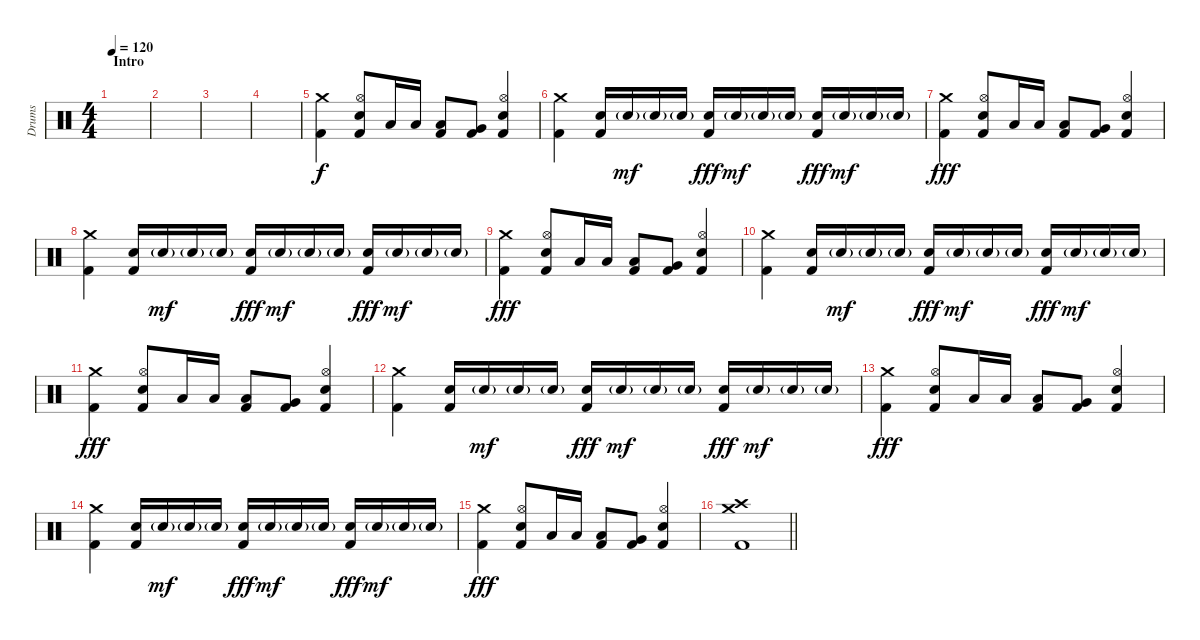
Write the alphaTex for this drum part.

\track ("Drums" "Drums") {instrument percussion}
\staff {score}
\articulation defaults
\ts (4 4)
\section ("" "Intro")
\tempo 120
\clef neutral
\ks c
|
|
|
|
("Crash medium (hit)" "Kick (hit) 2").4 ("Hi-Hat (open)" "Snare (hit) 2" "Kick (hit) 2").8 "Low Tom (hit)".16 "Low Tom (hit)".16 ("Low Tom (hit)" "Kick (hit) 2").8 ("Very Low Tom (hit)" "Kick (hit) 2").8 ("Hi-Hat (open)" "Snare (hit) 2" "Kick (hit) 2").4 |
("Crash medium (hit)" "Kick (hit) 2").4 ("Snare (hit) 2" "Kick (hit) 2").16 "Snare (hit) 2"{g}.16{dy mf} "Snare (hit) 2"{g}.16 "Snare (hit) 2"{g}.16 ("Snare (hit) 2" "Kick (hit) 2").16{dy fff} "Snare (hit) 2"{g}.16{dy mf} "Snare (hit) 2"{g}.16 "Snare (hit) 2"{g}.16 ("Snare (hit) 2" "Kick (hit) 2").16{dy fff} "Snare (hit) 2"{g}.16{dy mf} "Snare (hit) 2"{g}.16 "Snare (hit) 2"{g}.16 |
("Crash medium (hit)" "Kick (hit) 2").4{dy fff} ("Hi-Hat (open)" "Snare (hit) 2" "Kick (hit) 2").8 "Low Tom (hit)".16 "Low Tom (hit)".16 ("Low Tom (hit)" "Kick (hit) 2").8 ("Very Low Tom (hit)" "Kick (hit) 2").8 ("Hi-Hat (open)" "Snare (hit) 2" "Kick (hit) 2").4 |
("Crash medium (hit)" "Kick (hit) 2").4 ("Snare (hit) 2" "Kick (hit) 2").16 "Snare (hit) 2"{g}.16{dy mf} "Snare (hit) 2"{g}.16 "Snare (hit) 2"{g}.16 ("Snare (hit) 2" "Kick (hit) 2").16{dy fff} "Snare (hit) 2"{g}.16{dy mf} "Snare (hit) 2"{g}.16 "Snare (hit) 2"{g}.16 ("Snare (hit) 2" "Kick (hit) 2").16{dy fff} "Snare (hit) 2"{g}.16{dy mf} "Snare (hit) 2"{g}.16 "Snare (hit) 2"{g}.16 |
("Crash medium (hit)" "Kick (hit) 2").4{dy fff} ("Hi-Hat (open)" "Snare (hit) 2" "Kick (hit) 2").8 "Low Tom (hit)".16 "Low Tom (hit)".16 ("Low Tom (hit)" "Kick (hit) 2").8 ("Very Low Tom (hit)" "Kick (hit) 2").8 ("Hi-Hat (open)" "Snare (hit) 2" "Kick (hit) 2").4 |
("Crash medium (hit)" "Kick (hit) 2").4 ("Snare (hit) 2" "Kick (hit) 2").16 "Snare (hit) 2"{g}.16{dy mf} "Snare (hit) 2"{g}.16 "Snare (hit) 2"{g}.16 ("Snare (hit) 2" "Kick (hit) 2").16{dy fff} "Snare (hit) 2"{g}.16{dy mf} "Snare (hit) 2"{g}.16 "Snare (hit) 2"{g}.16 ("Snare (hit) 2" "Kick (hit) 2").16{dy fff} "Snare (hit) 2"{g}.16{dy mf} "Snare (hit) 2"{g}.16 "Snare (hit) 2"{g}.16 |
("Crash medium (hit)" "Kick (hit) 2").4{dy fff} ("Hi-Hat (open)" "Snare (hit) 2" "Kick (hit) 2").8 "Low Tom (hit)".16 "Low Tom (hit)".16 ("Low Tom (hit)" "Kick (hit) 2").8 ("Very Low Tom (hit)" "Kick (hit) 2").8 ("Hi-Hat (open)" "Snare (hit) 2" "Kick (hit) 2").4 |
("Crash medium (hit)" "Kick (hit) 2").4 ("Snare (hit) 2" "Kick (hit) 2").16 "Snare (hit) 2"{g}.16{dy mf} "Snare (hit) 2"{g}.16 "Snare (hit) 2"{g}.16 ("Snare (hit) 2" "Kick (hit) 2").16{dy fff} "Snare (hit) 2"{g}.16{dy mf} "Snare (hit) 2"{g}.16 "Snare (hit) 2"{g}.16 ("Snare (hit) 2" "Kick (hit) 2").16{dy fff} "Snare (hit) 2"{g}.16{dy mf} "Snare (hit) 2"{g}.16 "Snare (hit) 2"{g}.16 |
("Crash medium (hit)" "Kick (hit) 2").4{dy fff} ("Hi-Hat (open)" "Snare (hit) 2" "Kick (hit) 2").8 "Low Tom (hit)".16 "Low Tom (hit)".16 ("Low Tom (hit)" "Kick (hit) 2").8 ("Very Low Tom (hit)" "Kick (hit) 2").8 ("Hi-Hat (open)" "Snare (hit) 2" "Kick (hit) 2").4 |
("Crash medium (hit)" "Kick (hit) 2").4 ("Snare (hit) 2" "Kick (hit) 2").16 "Snare (hit) 2"{g}.16{dy mf} "Snare (hit) 2"{g}.16 "Snare (hit) 2"{g}.16 ("Snare (hit) 2" "Kick (hit) 2").16{dy fff} "Snare (hit) 2"{g}.16{dy mf} "Snare (hit) 2"{g}.16 "Snare (hit) 2"{g}.16 ("Snare (hit) 2" "Kick (hit) 2").16{dy fff} "Snare (hit) 2"{g}.16{dy mf} "Snare (hit) 2"{g}.16 "Snare (hit) 2"{g}.16 |
("Crash medium (hit)" "Kick (hit) 2").4{dy fff} ("Hi-Hat (open)" "Snare (hit) 2" "Kick (hit) 2").8 "Low Tom (hit)".16 "Low Tom (hit)".16 ("Low Tom (hit)" "Kick (hit) 2").8 ("Very Low Tom (hit)" "Kick (hit) 2").8 ("Hi-Hat (open)" "Snare (hit) 2" "Kick (hit) 2").4 |
\barLineRight lightlight
("Crash high (hit)" "Crash medium (hit)" "Kick (hit) 2").1
